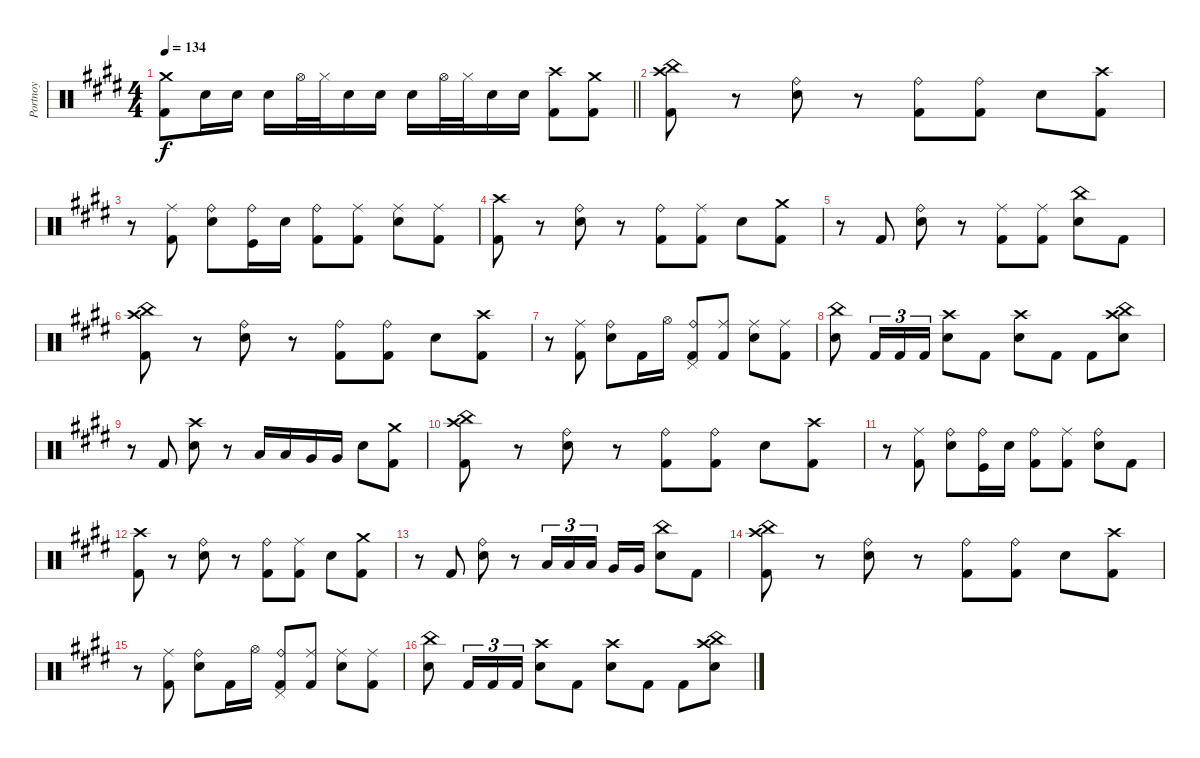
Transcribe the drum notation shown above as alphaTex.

\track ("Portnoy" "Portnoy") {instrument percussion}
\staff {score}
\articulation defaults
\ts (4 4)
\tempo 134
\clef neutral
\barLineRight lightlight
\ks c#minor
("Crash medium (hit)" "Kick (hit) 2").8{dy f} "Electric Snare (hit)".16 "Electric Snare (hit)".16 "Electric Snare (hit)".16 "Hi-Hat (open)".32 "Hi-Hat (closed)".32 "Electric Snare (hit)".16 "Electric Snare (hit)".16 "Electric Snare (hit)".16 "Hi-Hat (open)".32 "Hi-Hat (closed)".32 "Electric Snare (hit)".16 "Electric Snare (hit)".16 ("Kick (hit) 2" "Crash high (hit)").8 ("Kick (hit) 2" "Crash medium (hit)").8 |
("Kick (hit) 2" "Crash high (hit)" "China (hit)").8 r.8 ("Snare (hit) 2" "Ride (bell)").8 r.8 ("Kick (hit) 2" "Ride (bell)").8 ("Kick (hit) 2" "Ride (bell)").8 "Snare (hit) 2".8 ("Kick (hit) 2" "Crash high (hit)").8 |
r.8 ("Kick (hit) 2" "Ride (middle)").8 ("Snare (hit) 2" "Ride (bell)").8 ("Kick (hit)" "Ride (bell)").16 "Electric Snare (hit)".16 ("Kick (hit) 2" "Ride (bell)").8 ("Kick (hit) 2" "Ride (middle)").8 ("Snare (hit) 2" "Ride (middle)").8 ("Kick (hit) 2" "Ride (middle)").8 |
("Kick (hit) 2" "Crash high (hit)").8 r.8 ("Snare (hit) 2" "Ride (bell)").8 r.8 ("Kick (hit) 2" "Ride (bell)").8 ("Kick (hit) 2" "Ride (middle)").8 "Snare (hit) 2".8 ("Kick (hit) 2" "Crash medium (hit)").8 |
r.8 "Kick (hit) 2".8 ("Snare (hit) 2" "Ride (bell)").8 r.8 ("Kick (hit) 2" "Ride (middle)").8 ("Kick (hit) 2" "Ride (middle)").8 ("Snare (hit) 2" "China (hit)").8 "Kick (hit) 2".8 |
("Kick (hit) 2" "Crash high (hit)" "China (hit)").8 r.8 ("Snare (hit) 2" "Ride (bell)").8 r.8 ("Kick (hit) 2" "Ride (bell)").8 ("Kick (hit) 2" "Ride (bell)").8 "Snare (hit) 2".8 ("Kick (hit) 2" "Crash high (hit)").8 |
r.8 ("Kick (hit) 2" "Ride (middle)").8 ("Snare (hit) 2" "Ride (bell)").8 "Kick (hit) 2".16 "Hi-Hat (open)".16 ("Kick (hit) 2" "Ride (bell)" "Pedal Hi-Hat (hit)").8 ("Kick (hit) 2" "Ride (middle)").8 ("Snare (hit) 2" "Ride (middle)").8 ("Kick (hit) 2" "Ride (middle)").8 |
("Snare (hit) 2" "China (hit)").8 "Kick (hit) 2".16{tu (3 2)} "Kick (hit) 2".16{tu (3 2)} "Kick (hit) 2".16{tu (3 2)} ("Snare (hit) 2" "Crash high (hit)").8 "Kick (hit) 2".8 ("Snare (hit) 2" "Crash high (hit)").8 "Kick (hit) 2".8 "Kick (hit) 2".8 ("Snare (hit) 2" "Crash high (hit)" "China (hit)").8 |
r.8 "Kick (hit) 2".8 ("Snare (hit) 2" "Crash high (hit)").8 r.8 "Low Tom (hit)".16 "Low Tom (hit)".16 "Very Low Tom (hit)".16 "Very Low Tom (hit)".16 "Snare (hit) 2".8 ("Kick (hit) 2" "Crash medium (hit)").8 |
("Kick (hit) 2" "Crash high (hit)" "China (hit)").8 r.8 ("Snare (hit) 2" "Ride (bell)").8 r.8 ("Kick (hit) 2" "Ride (bell)").8 ("Kick (hit) 2" "Ride (bell)").8 "Snare (hit) 2".8 ("Kick (hit) 2" "Crash high (hit)").8 |
r.8 ("Kick (hit) 2" "Ride (middle)").8 ("Snare (hit) 2" "Ride (bell)").8 ("Kick (hit)" "Ride (bell)").16 "Electric Snare (hit)".16 ("Kick (hit) 2" "Ride (bell)").8 ("Kick (hit) 2" "Ride (middle)").8 ("Snare (hit) 2" "Ride (bell)").8 "Kick (hit) 2".8 |
("Kick (hit) 2" "Crash high (hit)").8 r.8 ("Snare (hit) 2" "Ride (bell)").8 r.8 ("Kick (hit) 2" "Ride (bell)").8 ("Kick (hit) 2" "Ride (middle)").8 "Snare (hit) 2".8 ("Kick (hit) 2" "Crash medium (hit)").8 |
r.8 "Kick (hit) 2".8 ("Snare (hit) 2" "Ride (bell)").8 r.8 "Low Tom (hit)".16{tu (3 2)} "Low Tom (hit)".16{tu (3 2)} "Low Tom (hit)".16{tu (3 2) beam splitsecondary} "Very Low Tom (hit)".16 "Very Low Tom (hit)".16 ("Snare (hit) 2" "China (hit)").8 "Kick (hit) 2".8 |
("Kick (hit) 2" "Crash high (hit)" "China (hit)").8 r.8 ("Snare (hit) 2" "Ride (bell)").8 r.8 ("Kick (hit) 2" "Ride (bell)").8 ("Kick (hit) 2" "Ride (bell)").8 "Snare (hit) 2".8 ("Kick (hit) 2" "Crash high (hit)").8 |
r.8 ("Kick (hit) 2" "Ride (middle)").8 ("Snare (hit) 2" "Ride (bell)").8 "Kick (hit) 2".16 "Hi-Hat (open)".16 ("Kick (hit) 2" "Ride (bell)" "Pedal Hi-Hat (hit)").8 ("Kick (hit) 2" "Ride (middle)").8 ("Snare (hit) 2" "Ride (middle)").8 ("Kick (hit) 2" "Ride (middle)").8 |
("Snare (hit) 2" "China (hit)").8 "Kick (hit) 2".16{tu (3 2)} "Kick (hit) 2".16{tu (3 2)} "Kick (hit) 2".16{tu (3 2)} ("Snare (hit) 2" "Crash high (hit)").8 "Kick (hit) 2".8 ("Snare (hit) 2" "Crash high (hit)").8 "Kick (hit) 2".8 "Kick (hit) 2".8 ("Snare (hit) 2" "Crash high (hit)" "China (hit)").8
